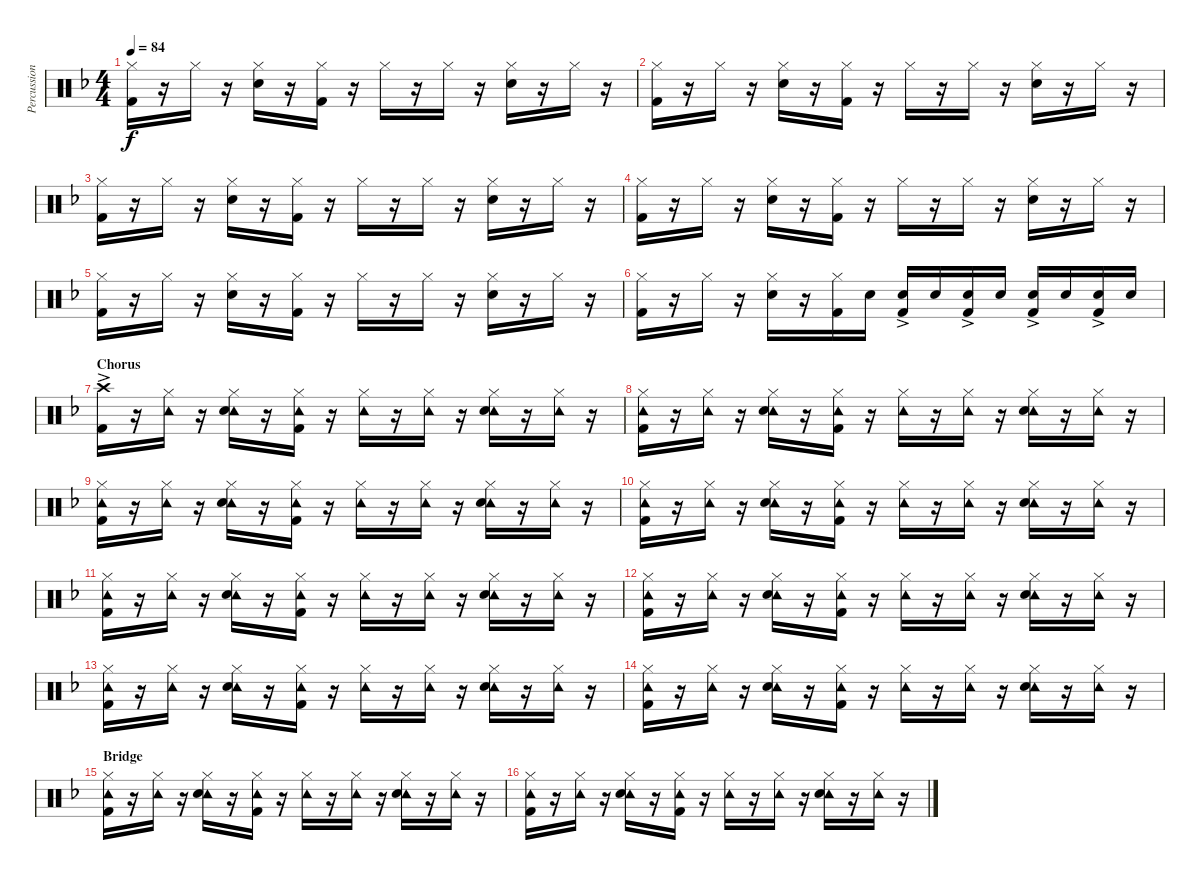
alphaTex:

\track ("Percussion" "Percussion") {instrument percussion}
\staff {score}
\articulation defaults
\ts (4 4)
\tempo 84
\clef neutral
\ks f
("Hi-Hat (closed)" "Kick (hit) 2").16{dy f} r.16 "Hi-Hat (closed)".16 r.16 ("Hi-Hat (closed)" "Snare (hit) 2").16 r.16 ("Hi-Hat (closed)" "Kick (hit) 2").16 r.16 "Hi-Hat (closed)".16 r.16 "Hi-Hat (closed)".16 r.16 ("Hi-Hat (closed)" "Snare (hit) 2").16 r.16 "Hi-Hat (closed)".16 r.16 |
("Hi-Hat (closed)" "Kick (hit) 2").16 r.16 "Hi-Hat (closed)".16 r.16 ("Hi-Hat (closed)" "Snare (hit) 2").16 r.16 ("Hi-Hat (closed)" "Kick (hit) 2").16 r.16 "Hi-Hat (closed)".16 r.16 "Hi-Hat (closed)".16 r.16 ("Hi-Hat (closed)" "Snare (hit) 2").16 r.16 "Hi-Hat (closed)".16 r.16 |
("Hi-Hat (closed)" "Kick (hit) 2").16 r.16 "Hi-Hat (closed)".16 r.16 ("Hi-Hat (closed)" "Snare (hit) 2").16 r.16 ("Hi-Hat (closed)" "Kick (hit) 2").16 r.16 "Hi-Hat (closed)".16 r.16 "Hi-Hat (closed)".16 r.16 ("Hi-Hat (closed)" "Snare (hit) 2").16 r.16 "Hi-Hat (closed)".16 r.16 |
("Hi-Hat (closed)" "Kick (hit) 2").16 r.16 "Hi-Hat (closed)".16 r.16 ("Hi-Hat (closed)" "Snare (hit) 2").16 r.16 ("Hi-Hat (closed)" "Kick (hit) 2").16 r.16 "Hi-Hat (closed)".16 r.16 "Hi-Hat (closed)".16 r.16 ("Hi-Hat (closed)" "Snare (hit) 2").16 r.16 "Hi-Hat (closed)".16 r.16 |
("Hi-Hat (closed)" "Kick (hit) 2").16 r.16 "Hi-Hat (closed)".16 r.16 ("Hi-Hat (closed)" "Snare (hit) 2").16 r.16 ("Hi-Hat (closed)" "Kick (hit) 2").16 r.16 "Hi-Hat (closed)".16 r.16 "Hi-Hat (closed)".16 r.16 ("Hi-Hat (closed)" "Snare (hit) 2").16 r.16 "Hi-Hat (closed)".16 r.16 |
("Hi-Hat (closed)" "Kick (hit) 2").16 r.16 "Hi-Hat (closed)".16 r.16 ("Hi-Hat (closed)" "Snare (hit) 2").16 r.16 ("Hi-Hat (closed)" "Kick (hit) 2").16 "Snare (hit) 2".16 ("Snare (hit) 2"{ac} "Kick (hit) 2").16 "Snare (hit) 2".16 ("Snare (hit) 2"{ac} "Kick (hit) 2").16 "Snare (hit) 2".16 ("Snare (hit) 2"{ac} "Kick (hit) 2").16 "Snare (hit) 2".16 ("Snare (hit) 2"{ac} "Kick (hit) 2").16 "Snare (hit) 2".16 |
\section ("" "Chorus")
("Crash high (hit)"{ac} "Kick (hit) 2").16 r.16 ("Hi-Hat (closed)" "Tambourine (hit)").16 r.16 ("Hi-Hat (closed)" "Tambourine (hit)" "Snare (hit) 2").16 r.16 ("Hi-Hat (closed)" "Tambourine (hit)" "Kick (hit) 2").16 r.16 ("Hi-Hat (closed)" "Tambourine (hit)").16 r.16 ("Hi-Hat (closed)" "Tambourine (hit)").16 r.16 ("Hi-Hat (closed)" "Tambourine (hit)" "Snare (hit) 2").16 r.16 ("Hi-Hat (closed)" "Tambourine (hit)").16 r.16 |
("Hi-Hat (closed)" "Tambourine (hit)" "Kick (hit) 2").16 r.16 ("Hi-Hat (closed)" "Tambourine (hit)").16 r.16 ("Hi-Hat (closed)" "Tambourine (hit)" "Snare (hit) 2").16 r.16 ("Hi-Hat (closed)" "Tambourine (hit)" "Kick (hit) 2").16 r.16 ("Hi-Hat (closed)" "Tambourine (hit)").16 r.16 ("Hi-Hat (closed)" "Tambourine (hit)").16 r.16 ("Hi-Hat (closed)" "Tambourine (hit)" "Snare (hit) 2").16 r.16 ("Hi-Hat (closed)" "Tambourine (hit)").16 r.16 |
("Hi-Hat (closed)" "Tambourine (hit)" "Kick (hit) 2").16 r.16 ("Hi-Hat (closed)" "Tambourine (hit)").16 r.16 ("Hi-Hat (closed)" "Tambourine (hit)" "Snare (hit) 2").16 r.16 ("Hi-Hat (closed)" "Tambourine (hit)" "Kick (hit) 2").16 r.16 ("Hi-Hat (closed)" "Tambourine (hit)").16 r.16 ("Hi-Hat (closed)" "Tambourine (hit)").16 r.16 ("Hi-Hat (closed)" "Tambourine (hit)" "Snare (hit) 2").16 r.16 ("Hi-Hat (closed)" "Tambourine (hit)").16 r.16 |
("Hi-Hat (closed)" "Tambourine (hit)" "Kick (hit) 2").16 r.16 ("Hi-Hat (closed)" "Tambourine (hit)").16 r.16 ("Hi-Hat (closed)" "Tambourine (hit)" "Snare (hit) 2").16 r.16 ("Hi-Hat (closed)" "Tambourine (hit)" "Kick (hit) 2").16 r.16 ("Hi-Hat (closed)" "Tambourine (hit)").16 r.16 ("Hi-Hat (closed)" "Tambourine (hit)").16 r.16 ("Hi-Hat (closed)" "Tambourine (hit)" "Snare (hit) 2").16 r.16 ("Hi-Hat (closed)" "Tambourine (hit)").16 r.16 |
("Hi-Hat (closed)" "Tambourine (hit)" "Kick (hit) 2").16 r.16 ("Hi-Hat (closed)" "Tambourine (hit)").16 r.16 ("Hi-Hat (closed)" "Tambourine (hit)" "Snare (hit) 2").16 r.16 ("Hi-Hat (closed)" "Tambourine (hit)" "Kick (hit) 2").16 r.16 ("Hi-Hat (closed)" "Tambourine (hit)").16 r.16 ("Hi-Hat (closed)" "Tambourine (hit)").16 r.16 ("Hi-Hat (closed)" "Tambourine (hit)" "Snare (hit) 2").16 r.16 ("Hi-Hat (closed)" "Tambourine (hit)").16 r.16 |
("Hi-Hat (closed)" "Tambourine (hit)" "Kick (hit) 2").16 r.16 ("Hi-Hat (closed)" "Tambourine (hit)").16 r.16 ("Hi-Hat (closed)" "Tambourine (hit)" "Snare (hit) 2").16 r.16 ("Hi-Hat (closed)" "Tambourine (hit)" "Kick (hit) 2").16 r.16 ("Hi-Hat (closed)" "Tambourine (hit)").16 r.16 ("Hi-Hat (closed)" "Tambourine (hit)").16 r.16 ("Hi-Hat (closed)" "Tambourine (hit)" "Snare (hit) 2").16 r.16 ("Hi-Hat (closed)" "Tambourine (hit)").16 r.16 |
("Hi-Hat (closed)" "Tambourine (hit)" "Kick (hit) 2").16 r.16 ("Hi-Hat (closed)" "Tambourine (hit)").16 r.16 ("Hi-Hat (closed)" "Tambourine (hit)" "Snare (hit) 2").16 r.16 ("Hi-Hat (closed)" "Tambourine (hit)" "Kick (hit) 2").16 r.16 ("Hi-Hat (closed)" "Tambourine (hit)").16 r.16 ("Hi-Hat (closed)" "Tambourine (hit)").16 r.16 ("Hi-Hat (closed)" "Tambourine (hit)" "Snare (hit) 2").16 r.16 ("Hi-Hat (closed)" "Tambourine (hit)").16 r.16 |
("Hi-Hat (closed)" "Tambourine (hit)" "Kick (hit) 2").16 r.16 ("Hi-Hat (closed)" "Tambourine (hit)").16 r.16 ("Hi-Hat (closed)" "Tambourine (hit)" "Snare (hit) 2").16 r.16 ("Hi-Hat (closed)" "Tambourine (hit)" "Kick (hit) 2").16 r.16 ("Hi-Hat (closed)" "Tambourine (hit)").16 r.16 ("Hi-Hat (closed)" "Tambourine (hit)").16 r.16 ("Hi-Hat (closed)" "Tambourine (hit)" "Snare (hit) 2").16 r.16 ("Hi-Hat (closed)" "Tambourine (hit)").16 r.16 |
\section ("" "Bridge")
("Hi-Hat (closed)" "Tambourine (hit)" "Kick (hit) 2").16 r.16 ("Hi-Hat (closed)" "Tambourine (hit)").16 r.16 ("Hi-Hat (closed)" "Tambourine (hit)" "Snare (hit) 2").16 r.16 ("Hi-Hat (closed)" "Tambourine (hit)" "Kick (hit) 2").16 r.16 ("Hi-Hat (closed)" "Tambourine (hit)").16 r.16 ("Hi-Hat (closed)" "Tambourine (hit)").16 r.16 ("Hi-Hat (closed)" "Tambourine (hit)" "Snare (hit) 2").16 r.16 ("Hi-Hat (closed)" "Tambourine (hit)").16 r.16 |
("Hi-Hat (closed)" "Tambourine (hit)" "Kick (hit) 2").16 r.16 ("Hi-Hat (closed)" "Tambourine (hit)").16 r.16 ("Hi-Hat (closed)" "Tambourine (hit)" "Snare (hit) 2").16 r.16 ("Hi-Hat (closed)" "Tambourine (hit)" "Kick (hit) 2").16 r.16 ("Hi-Hat (closed)" "Tambourine (hit)").16 r.16 ("Hi-Hat (closed)" "Tambourine (hit)").16 r.16 ("Hi-Hat (closed)" "Tambourine (hit)" "Snare (hit) 2").16 r.16 ("Hi-Hat (closed)" "Tambourine (hit)").16 r.16
